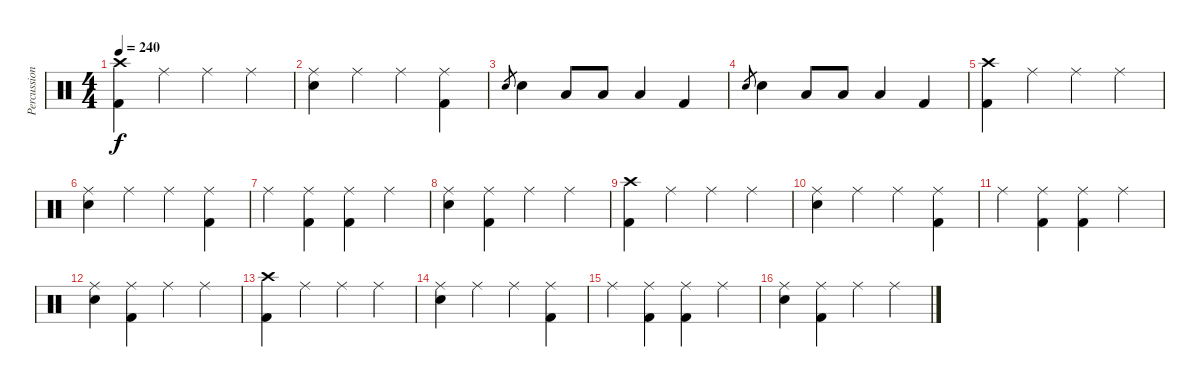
\track ("Percussion" "Percussion") {instrument percussion}
\staff {score}
\articulation defaults
\ts (4 4)
\tempo 240
\clef neutral
\ks c
("Crash high (hit)" "Kick (hit) 2").4{dy f} "Ride (middle)".4 "Ride (middle)".4 "Ride (middle)".4 |
("Ride (middle)" "Snare (hit) 2").4 "Ride (middle)".4 "Ride (middle)".4 ("Ride (middle)" "Kick (hit) 2").4 |
"Snare (hit) 2".8{gr} "Snare (hit) 2".4 "Low Tom (hit)".8 "Low Tom (hit)".8 "Low Tom (hit)".4 "Kick (hit) 2".4 |
"Snare (hit) 2".8{gr} "Snare (hit) 2".4 "Low Tom (hit)".8 "Low Tom (hit)".8 "Low Tom (hit)".4 "Kick (hit) 2".4 |
("Crash high (hit)" "Kick (hit) 2").4 "Ride (middle)".4 "Ride (middle)".4 "Ride (middle)".4 |
("Ride (middle)" "Snare (hit) 2").4 "Ride (middle)".4 "Ride (middle)".4 ("Ride (middle)" "Kick (hit) 2").4 |
"Ride (middle)".4 ("Ride (middle)" "Kick (hit) 2").4 ("Ride (middle)" "Kick (hit) 2").4 "Ride (middle)".4 |
("Ride (middle)" "Snare (hit) 2").4 ("Ride (middle)" "Kick (hit) 2").4 "Ride (middle)".4 "Ride (middle)".4 |
("Crash high (hit)" "Kick (hit) 2").4 "Ride (middle)".4 "Ride (middle)".4 "Ride (middle)".4 |
("Ride (middle)" "Snare (hit) 2").4 "Ride (middle)".4 "Ride (middle)".4 ("Ride (middle)" "Kick (hit) 2").4 |
"Ride (middle)".4 ("Ride (middle)" "Kick (hit) 2").4 ("Ride (middle)" "Kick (hit) 2").4 "Ride (middle)".4 |
("Ride (middle)" "Snare (hit) 2").4 ("Ride (middle)" "Kick (hit) 2").4 "Ride (middle)".4 "Ride (middle)".4 |
("Crash high (hit)" "Kick (hit) 2").4 "Ride (middle)".4 "Ride (middle)".4 "Ride (middle)".4 |
("Ride (middle)" "Snare (hit) 2").4 "Ride (middle)".4 "Ride (middle)".4 ("Ride (middle)" "Kick (hit) 2").4 |
"Ride (middle)".4 ("Ride (middle)" "Kick (hit) 2").4 ("Ride (middle)" "Kick (hit) 2").4 "Ride (middle)".4 |
("Ride (middle)" "Snare (hit) 2").4 ("Ride (middle)" "Kick (hit) 2").4 "Ride (middle)".4 "Ride (middle)".4
